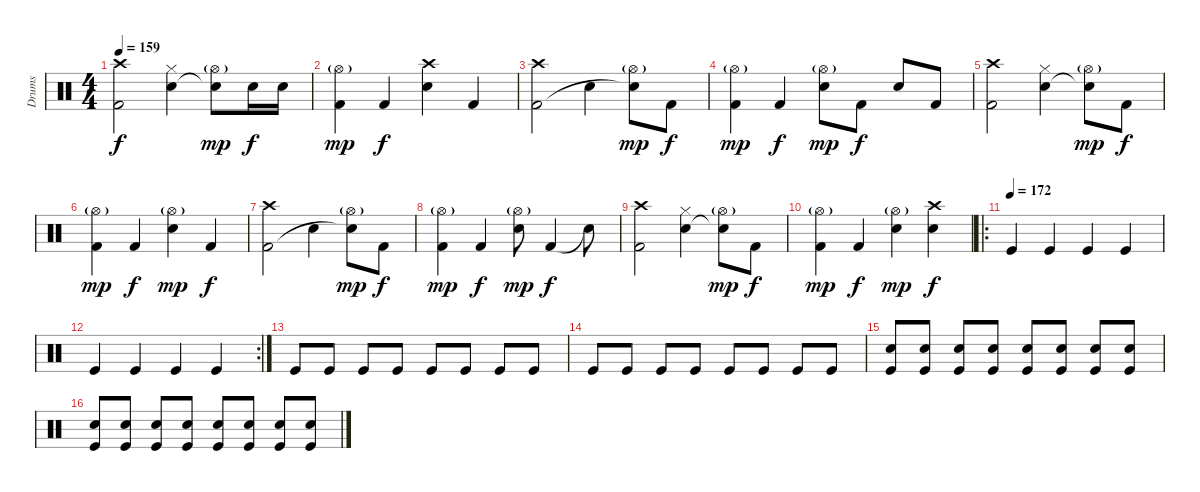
\track ("Drums" "Drums") {instrument percussion}
\staff {score}
\articulation defaults
\ts (4 4)
\tempo 159
\clef neutral
\ks c
("Crash high (hit)" "Kick (hit) 2").2{dy f} ("Hi-Hat (closed)" "Electric Snare (hit)").4 ("Hi-Hat (open)"{g} "Snare (hit)"{t}).8{dy mp} "Electric Snare (hit)".16{dy f} "Electric Snare (hit)".16 |
("Hi-Hat (open)"{g} "Kick (hit) 2").4{dy mp} "Kick (hit) 2".4{dy f} ("Crash high (hit)" "Electric Snare (hit)").4 "Kick (hit) 2".4 |
("Crash high (hit)" "Kick (hit) 2").2 "Electric Snare (hit)".4 ("Hi-Hat (open)"{g} "Snare (hit)"{t}).8{dy mp} "Kick (hit) 2".8{dy f} |
("Hi-Hat (open)"{g} "Kick (hit) 2").4{dy mp} "Kick (hit) 2".4{dy f} ("Hi-Hat (open)"{g} "Electric Snare (hit)").8{dy mp} "Kick (hit) 2".8{dy f} "Electric Snare (hit)".8 "Kick (hit) 2".8 |
("Crash high (hit)" "Kick (hit) 2").2 ("Hi-Hat (closed)" "Electric Snare (hit)").4 ("Hi-Hat (open)"{g} "Snare (hit)"{t}).8{dy mp} "Kick (hit) 2".8{dy f} |
("Hi-Hat (open)"{g} "Kick (hit) 2").4{dy mp} "Kick (hit) 2".4{dy f} ("Hi-Hat (open)"{g} "Electric Snare (hit)").4{dy mp} "Kick (hit) 2".4{dy f} |
("Crash high (hit)" "Kick (hit) 2").2 "Electric Snare (hit)".4 ("Hi-Hat (open)"{g} "Snare (hit)"{t}).8{dy mp} "Kick (hit) 2".8{dy f} |
("Hi-Hat (open)"{g} "Kick (hit) 2").4{dy mp} "Kick (hit) 2".4{dy f} ("Hi-Hat (open)"{g} "Electric Snare (hit)").8{dy mp} "Kick (hit) 2".4{dy f} "Snare (hit)"{t}.8 |
("Crash high (hit)" "Kick (hit) 2").2 ("Hi-Hat (closed)" "Electric Snare (hit)").4 ("Hi-Hat (open)"{g} "Snare (hit)"{t}).8{dy mp} "Kick (hit) 2".8{dy f} |
("Hi-Hat (open)"{g} "Kick (hit) 2").4{dy mp} "Kick (hit) 2".4{dy f} ("Hi-Hat (open)"{g} "Electric Snare (hit)").4{dy mp} ("Crash high (hit)" "Electric Snare (hit)").4{dy f} |
\ro
\tempo (172)
"Kick (hit)".4 "Kick (hit)".4 "Kick (hit)".4 "Kick (hit)".4 |
\rc 2 "Kick (hit)".4 "Kick (hit)".4 "Kick (hit)".4 "Kick (hit)".4
|
"Kick (hit)".8 "Kick (hit)".8 "Kick (hit)".8 "Kick (hit)".8 "Kick (hit)".8 "Kick (hit)".8 "Kick (hit)".8 "Kick (hit)".8 |
"Kick (hit)".8 "Kick (hit)".8 "Kick (hit)".8 "Kick (hit)".8 "Kick (hit)".8 "Kick (hit)".8 "Kick (hit)".8 "Kick (hit)".8 |
("Electric Snare (hit)" "Kick (hit)").8 ("Electric Snare (hit)" "Kick (hit)").8 ("Electric Snare (hit)" "Kick (hit)").8 ("Electric Snare (hit)" "Kick (hit)").8 ("Electric Snare (hit)" "Kick (hit)").8 ("Electric Snare (hit)" "Kick (hit)").8 ("Electric Snare (hit)" "Kick (hit)").8 ("Electric Snare (hit)" "Kick (hit)").8 |
("Electric Snare (hit)" "Kick (hit)").8 ("Electric Snare (hit)" "Kick (hit)").8 ("Electric Snare (hit)" "Kick (hit)").8 ("Electric Snare (hit)" "Kick (hit)").8 ("Electric Snare (hit)" "Kick (hit)").8 ("Electric Snare (hit)" "Kick (hit)").8 ("Electric Snare (hit)" "Kick (hit)").8 ("Electric Snare (hit)" "Kick (hit)").8
